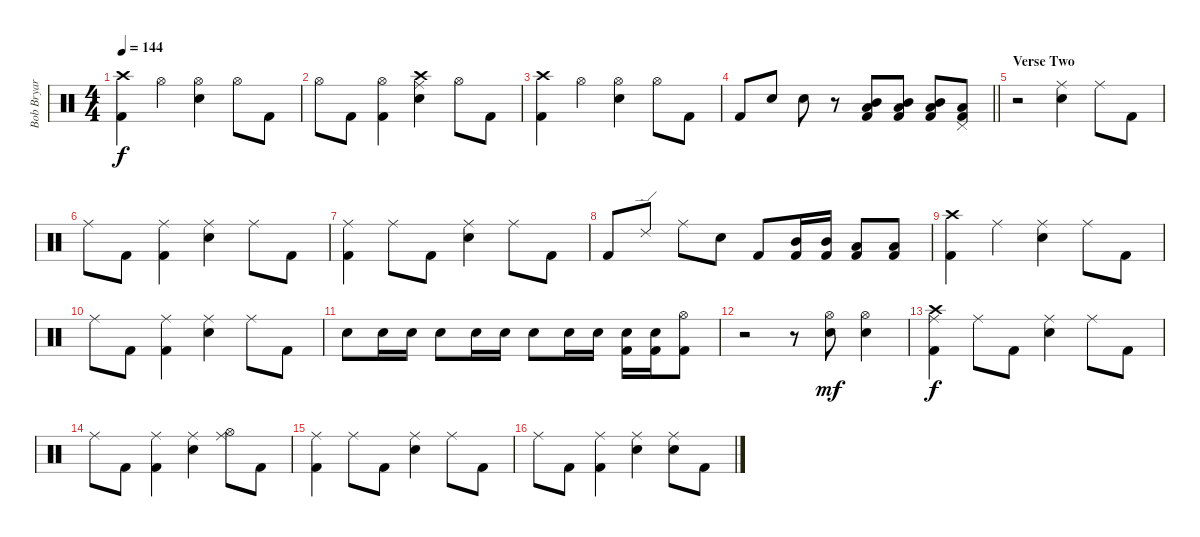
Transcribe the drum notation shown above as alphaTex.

\track ("Bob Bryar" "Bob Bryar") {instrument percussion}
\staff {score}
\articulation defaults
\ts (4 4)
\section ("" "")
\tempo 144
\clef neutral
\ks c
("Crash high (hit)" "Kick (hit) 2").4{dy f} "Hi-Hat (open)".4 ("Hi-Hat (open)" "Snare (hit) 2").4 "Hi-Hat (open)".8 "Kick (hit) 2".8 |
"Hi-Hat (open)".8 "Kick (hit) 2".8 ("Kick (hit) 2" "Hi-Hat (open)").4 ("Ride (middle)" "Snare (hit) 2" "Crash high (hit)").4 "Hi-Hat (open)".8 "Kick (hit) 2".8 |
("Crash high (hit)" "Kick (hit) 2").4 "Hi-Hat (open)".4 ("Hi-Hat (open)" "Snare (hit) 2").4 "Hi-Hat (open)".8 "Kick (hit) 2".8 |
\barLineRight lightlight "Kick (hit) 2".8 "Snare (hit) 2".8 "Snare (hit) 2".8
r.8 ("Kick (hit) 2" "Low Floor Tom (hit)" "Mid Tom (hit)").8 ("Low Floor Tom (hit)" "Kick (hit) 2" "Mid Tom (hit)").8 ("Low Floor Tom (hit)" "Kick (hit) 2" "Mid Tom (hit)").8 ("Low Floor Tom (hit)" "Kick (hit) 2" "Pedal Hi-Hat (hit)").8 |
\section ("" "Verse Two")
r.2 ("Snare (hit) 2" "Ride (middle)").4 "Ride (middle)".8 "Kick (hit) 2".8 |
"Ride (middle)".8 "Kick (hit) 2".8 ("Kick (hit) 2" "Ride (middle)").4 ("Ride (middle)" "Snare (hit) 2").4 "Ride (middle)".8 "Kick (hit) 2".8 |
("Ride (middle)" "Kick (hit) 2").4 "Ride (middle)".8 "Kick (hit) 2".8 ("Ride (middle)" "Snare (hit) 2").4 "Ride (middle)".8 "Kick (hit) 2".8 |
"Kick (hit) 2".8 "Ride (edge) 2".8 "Ride (middle)".8 "Snare (hit) 2".8 "Kick (hit) 2".8 ("Kick (hit) 2" "Mid Tom (hit)").16 ("Kick (hit) 2" "Mid Tom (hit)").16 ("Kick (hit) 2" "Low Floor Tom (hit)").8 ("Kick (hit) 2" "Low Floor Tom (hit)").8 |
("Crash high (hit)" "Kick (hit) 2").4 "Ride (middle)".4 ("Snare (hit) 2" "Ride (middle)").4 "Ride (middle)".8 "Kick (hit) 2".8 |
"Ride (middle)".8 "Kick (hit) 2".8 ("Kick (hit) 2" "Ride (middle)").4 ("Ride (middle)" "Snare (hit) 2").4 "Ride (middle)".8 "Kick (hit) 2".8 |
"Snare (hit) 2".8 "Snare (hit) 2".16 "Snare (hit) 2".16 "Snare (hit) 2".8 "Snare (hit) 2".16 "Snare (hit) 2".16 "Snare (hit) 2".8 "Snare (hit) 2".16 "Snare (hit) 2".16 ("Kick (hit) 2" "Snare (hit) 2").16 ("Kick (hit) 2" "Snare (hit) 2").16 ("Kick (hit) 2" "Hi-Hat (open)").8 |
r.2 r.8 ("Hi-Hat (open)" "Snare (hit) 2").8{dy mf} ("Hi-Hat (open)" "Snare (hit) 2").4 |
("Ride (middle)" "Kick (hit) 2" "Crash high (hit)").4{dy f} "Ride (middle)".8 "Kick (hit) 2".8 ("Ride (middle)" "Snare (hit) 2").4 "Ride (middle)".8 "Kick (hit) 2".8 |
"Ride (middle)".8 "Kick (hit) 2".8 ("Kick (hit) 2" "Ride (middle)").4 ("Ride (middle)" "Snare (hit) 2").4 ("Ride (middle)" "Hi-Hat (open)").8 "Kick (hit) 2".8 |
("Ride (middle)" "Kick (hit) 2").4 "Ride (middle)".8 "Kick (hit) 2".8 ("Ride (middle)" "Snare (hit) 2").4 "Ride (middle)".8 "Kick (hit) 2".8 |
"Ride (middle)".8 "Kick (hit) 2".8 ("Kick (hit) 2" "Ride (middle)").4 ("Ride (middle)" "Snare (hit) 2").4 ("Snare (hit) 2" "Ride (middle)").8 "Kick (hit) 2".8
